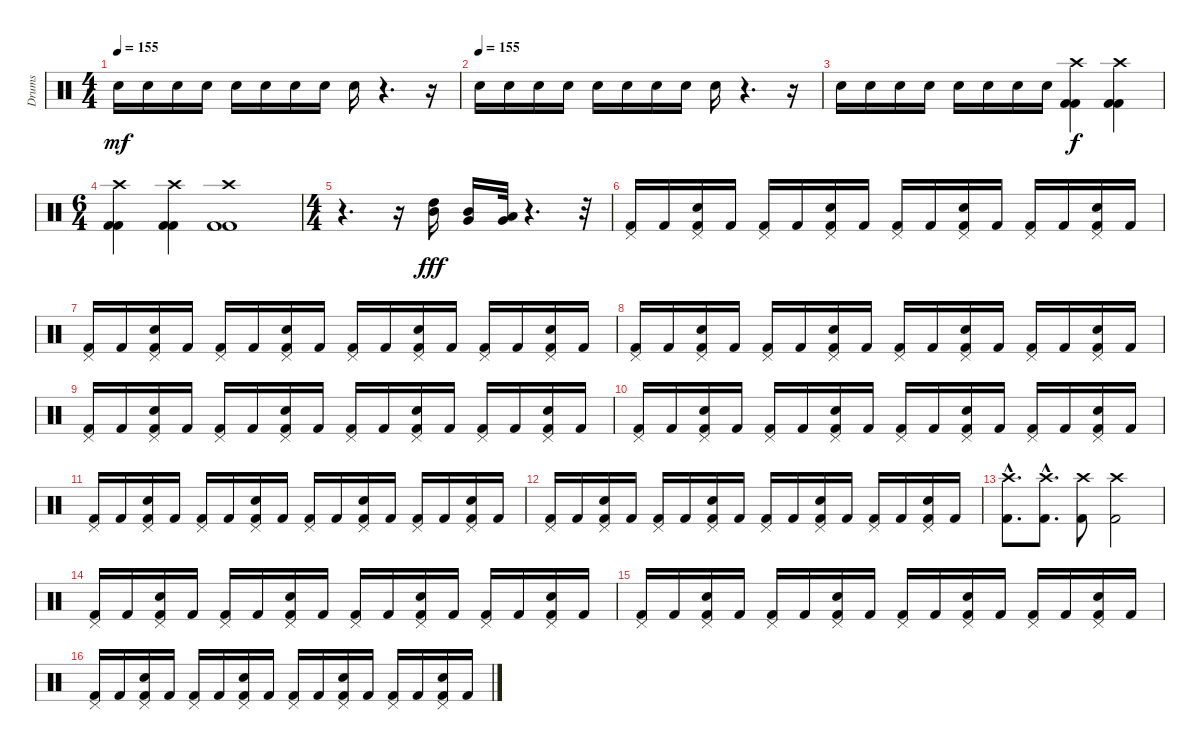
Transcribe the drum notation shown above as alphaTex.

\track ("Drums" "Drums") {instrument percussion}
\staff {score}
\articulation defaults
\ts (4 4)
\tempo 155
\clef neutral
\ks c "Electric Snare (hit)".16{dy mf} "Electric Snare (hit)".16 "Electric Snare (hit)".16 "Electric Snare (hit)".16 "Electric Snare (hit)".16 "Electric Snare (hit)".16 "Electric Snare (hit)".16 "Electric Snare (hit)".16 "Electric Snare (hit)".16
r.4{d} r.16 |
\tempo (155)
"Electric Snare (hit)".16 "Electric Snare (hit)".16 "Electric Snare (hit)".16 "Electric Snare (hit)".16 "Electric Snare (hit)".16 "Electric Snare (hit)".16 "Electric Snare (hit)".16 "Electric Snare (hit)".16 "Electric Snare (hit)".16 r.4{d} r.16 |
"Electric Snare (hit)".16 "Electric Snare (hit)".16 "Electric Snare (hit)".16 "Electric Snare (hit)".16 "Electric Snare (hit)".16 "Electric Snare (hit)".16 "Electric Snare (hit)".16 "Electric Snare (hit)".16 ("Kick (hit) 2" "Kick (hit) 2" "Crash high (hit)").4{dy f} ("Kick (hit) 2" "Kick (hit) 2" "Crash high (hit)").4 |
\ts (6 4)
("Kick (hit) 2" "Kick (hit) 2" "Crash high (hit)").4 ("Kick (hit) 2" "Kick (hit) 2" "Crash high (hit)").4 ("Kick (hit) 2" "Kick (hit) 2" "Crash high (hit)").1 |
\ts (4 4)
r.4{d} r.16 ("Mid Tom (hit)" "High Tom (hit)").16{dy fff} ("Very Low Tom (hit)" "Mid Tom (hit)").16 ("Low Floor Tom (hit)" "Very Low Tom (hit)").32 r.4{d} r.32 |
("Kick (hit) 2" "Pedal Hi-Hat (hit)").16 "Kick (hit) 2".16 ("Kick (hit) 2" "Electric Snare (hit)" "Pedal Hi-Hat (hit)").16 "Kick (hit) 2".16 ("Kick (hit) 2" "Pedal Hi-Hat (hit)").16 "Kick (hit) 2".16 ("Kick (hit) 2" "Electric Snare (hit)" "Pedal Hi-Hat (hit)").16 "Kick (hit) 2".16 ("Kick (hit) 2" "Pedal Hi-Hat (hit)").16 "Kick (hit) 2".16 ("Kick (hit) 2" "Electric Snare (hit)" "Pedal Hi-Hat (hit)").16 "Kick (hit) 2".16 ("Kick (hit) 2" "Pedal Hi-Hat (hit)").16 "Kick (hit) 2".16 ("Kick (hit) 2" "Electric Snare (hit)" "Pedal Hi-Hat (hit)").16 "Kick (hit) 2".16 |
("Kick (hit) 2" "Pedal Hi-Hat (hit)").16 "Kick (hit) 2".16 ("Kick (hit) 2" "Electric Snare (hit)" "Pedal Hi-Hat (hit)").16 "Kick (hit) 2".16 ("Kick (hit) 2" "Pedal Hi-Hat (hit)").16 "Kick (hit) 2".16 ("Kick (hit) 2" "Electric Snare (hit)" "Pedal Hi-Hat (hit)").16 "Kick (hit) 2".16 ("Kick (hit) 2" "Pedal Hi-Hat (hit)").16 "Kick (hit) 2".16 ("Kick (hit) 2" "Electric Snare (hit)" "Pedal Hi-Hat (hit)").16 "Kick (hit) 2".16 ("Kick (hit) 2" "Pedal Hi-Hat (hit)").16 "Kick (hit) 2".16 ("Kick (hit) 2" "Electric Snare (hit)" "Pedal Hi-Hat (hit)").16 "Kick (hit) 2".16 |
("Kick (hit) 2" "Pedal Hi-Hat (hit)").16 "Kick (hit) 2".16 ("Kick (hit) 2" "Electric Snare (hit)" "Pedal Hi-Hat (hit)").16 "Kick (hit) 2".16 ("Kick (hit) 2" "Pedal Hi-Hat (hit)").16 "Kick (hit) 2".16 ("Kick (hit) 2" "Electric Snare (hit)" "Pedal Hi-Hat (hit)").16 "Kick (hit) 2".16 ("Kick (hit) 2" "Pedal Hi-Hat (hit)").16 "Kick (hit) 2".16 ("Kick (hit) 2" "Electric Snare (hit)" "Pedal Hi-Hat (hit)").16 "Kick (hit) 2".16 ("Kick (hit) 2" "Pedal Hi-Hat (hit)").16 "Kick (hit) 2".16 ("Kick (hit) 2" "Electric Snare (hit)" "Pedal Hi-Hat (hit)").16 "Kick (hit) 2".16 |
("Kick (hit) 2" "Pedal Hi-Hat (hit)").16 "Kick (hit) 2".16 ("Kick (hit) 2" "Electric Snare (hit)" "Pedal Hi-Hat (hit)").16 "Kick (hit) 2".16 ("Kick (hit) 2" "Pedal Hi-Hat (hit)").16 "Kick (hit) 2".16 ("Kick (hit) 2" "Electric Snare (hit)" "Pedal Hi-Hat (hit)").16 "Kick (hit) 2".16 ("Kick (hit) 2" "Pedal Hi-Hat (hit)").16 "Kick (hit) 2".16 ("Kick (hit) 2" "Electric Snare (hit)" "Pedal Hi-Hat (hit)").16 "Kick (hit) 2".16 ("Kick (hit) 2" "Pedal Hi-Hat (hit)").16 "Kick (hit) 2".16 ("Kick (hit) 2" "Electric Snare (hit)" "Pedal Hi-Hat (hit)").16 "Kick (hit) 2".16 |
("Kick (hit) 2" "Pedal Hi-Hat (hit)").16 "Kick (hit) 2".16 ("Kick (hit) 2" "Electric Snare (hit)" "Pedal Hi-Hat (hit)").16 "Kick (hit) 2".16 ("Kick (hit) 2" "Pedal Hi-Hat (hit)").16 "Kick (hit) 2".16 ("Kick (hit) 2" "Electric Snare (hit)" "Pedal Hi-Hat (hit)").16 "Kick (hit) 2".16 ("Kick (hit) 2" "Pedal Hi-Hat (hit)").16 "Kick (hit) 2".16 ("Kick (hit) 2" "Electric Snare (hit)" "Pedal Hi-Hat (hit)").16 "Kick (hit) 2".16 ("Kick (hit) 2" "Pedal Hi-Hat (hit)").16 "Kick (hit) 2".16 ("Kick (hit) 2" "Electric Snare (hit)" "Pedal Hi-Hat (hit)").16 "Kick (hit) 2".16 |
("Kick (hit) 2" "Pedal Hi-Hat (hit)").16 "Kick (hit) 2".16 ("Kick (hit) 2" "Electric Snare (hit)" "Pedal Hi-Hat (hit)").16 "Kick (hit) 2".16 ("Kick (hit) 2" "Pedal Hi-Hat (hit)").16 "Kick (hit) 2".16 ("Kick (hit) 2" "Electric Snare (hit)" "Pedal Hi-Hat (hit)").16 "Kick (hit) 2".16 ("Kick (hit) 2" "Pedal Hi-Hat (hit)").16 "Kick (hit) 2".16 ("Kick (hit) 2" "Electric Snare (hit)" "Pedal Hi-Hat (hit)").16 "Kick (hit) 2".16 ("Kick (hit) 2" "Pedal Hi-Hat (hit)").16 "Kick (hit) 2".16 ("Kick (hit) 2" "Electric Snare (hit)" "Pedal Hi-Hat (hit)").16 "Kick (hit) 2".16 |
("Kick (hit) 2" "Pedal Hi-Hat (hit)").16 "Kick (hit) 2".16 ("Kick (hit) 2" "Electric Snare (hit)" "Pedal Hi-Hat (hit)").16 "Kick (hit) 2".16 ("Kick (hit) 2" "Pedal Hi-Hat (hit)").16 "Kick (hit) 2".16 ("Kick (hit) 2" "Electric Snare (hit)" "Pedal Hi-Hat (hit)").16 "Kick (hit) 2".16 ("Kick (hit) 2" "Pedal Hi-Hat (hit)").16 "Kick (hit) 2".16 ("Kick (hit) 2" "Electric Snare (hit)" "Pedal Hi-Hat (hit)").16 "Kick (hit) 2".16 ("Kick (hit) 2" "Pedal Hi-Hat (hit)").16 "Kick (hit) 2".16 ("Kick (hit) 2" "Electric Snare (hit)" "Pedal Hi-Hat (hit)").16 "Kick (hit) 2".16 |
("Kick (hit) 2"{hac} "Crash high (hit)"{hac}).8{d} ("Kick (hit) 2"{hac} "Crash high (hit)"{hac}).8{d} ("Kick (hit) 2" "Crash high (hit)").8 ("Kick (hit) 2" "Crash high (hit)").2 |
("Kick (hit) 2" "Pedal Hi-Hat (hit)").16 "Kick (hit) 2".16 ("Kick (hit) 2" "Electric Snare (hit)" "Pedal Hi-Hat (hit)").16 "Kick (hit) 2".16 ("Kick (hit) 2" "Pedal Hi-Hat (hit)").16 "Kick (hit) 2".16 ("Kick (hit) 2" "Electric Snare (hit)" "Pedal Hi-Hat (hit)").16 "Kick (hit) 2".16 ("Kick (hit) 2" "Pedal Hi-Hat (hit)").16 "Kick (hit) 2".16 ("Kick (hit) 2" "Electric Snare (hit)" "Pedal Hi-Hat (hit)").16 "Kick (hit) 2".16 ("Kick (hit) 2" "Pedal Hi-Hat (hit)").16 "Kick (hit) 2".16 ("Kick (hit) 2" "Electric Snare (hit)" "Pedal Hi-Hat (hit)").16 "Kick (hit) 2".16 |
("Kick (hit) 2" "Pedal Hi-Hat (hit)").16 "Kick (hit) 2".16 ("Kick (hit) 2" "Electric Snare (hit)" "Pedal Hi-Hat (hit)").16 "Kick (hit) 2".16 ("Kick (hit) 2" "Pedal Hi-Hat (hit)").16 "Kick (hit) 2".16 ("Kick (hit) 2" "Electric Snare (hit)" "Pedal Hi-Hat (hit)").16 "Kick (hit) 2".16 ("Kick (hit) 2" "Pedal Hi-Hat (hit)").16 "Kick (hit) 2".16 ("Kick (hit) 2" "Electric Snare (hit)" "Pedal Hi-Hat (hit)").16 "Kick (hit) 2".16 ("Kick (hit) 2" "Pedal Hi-Hat (hit)").16 "Kick (hit) 2".16 ("Kick (hit) 2" "Electric Snare (hit)" "Pedal Hi-Hat (hit)").16 "Kick (hit) 2".16 |
("Kick (hit) 2" "Pedal Hi-Hat (hit)").16 "Kick (hit) 2".16 ("Kick (hit) 2" "Electric Snare (hit)" "Pedal Hi-Hat (hit)").16 "Kick (hit) 2".16 ("Kick (hit) 2" "Pedal Hi-Hat (hit)").16 "Kick (hit) 2".16 ("Kick (hit) 2" "Electric Snare (hit)" "Pedal Hi-Hat (hit)").16 "Kick (hit) 2".16 ("Kick (hit) 2" "Pedal Hi-Hat (hit)").16 "Kick (hit) 2".16 ("Kick (hit) 2" "Electric Snare (hit)" "Pedal Hi-Hat (hit)").16 "Kick (hit) 2".16 ("Kick (hit) 2" "Pedal Hi-Hat (hit)").16 "Kick (hit) 2".16 ("Kick (hit) 2" "Electric Snare (hit)" "Pedal Hi-Hat (hit)").16 "Kick (hit) 2".16
